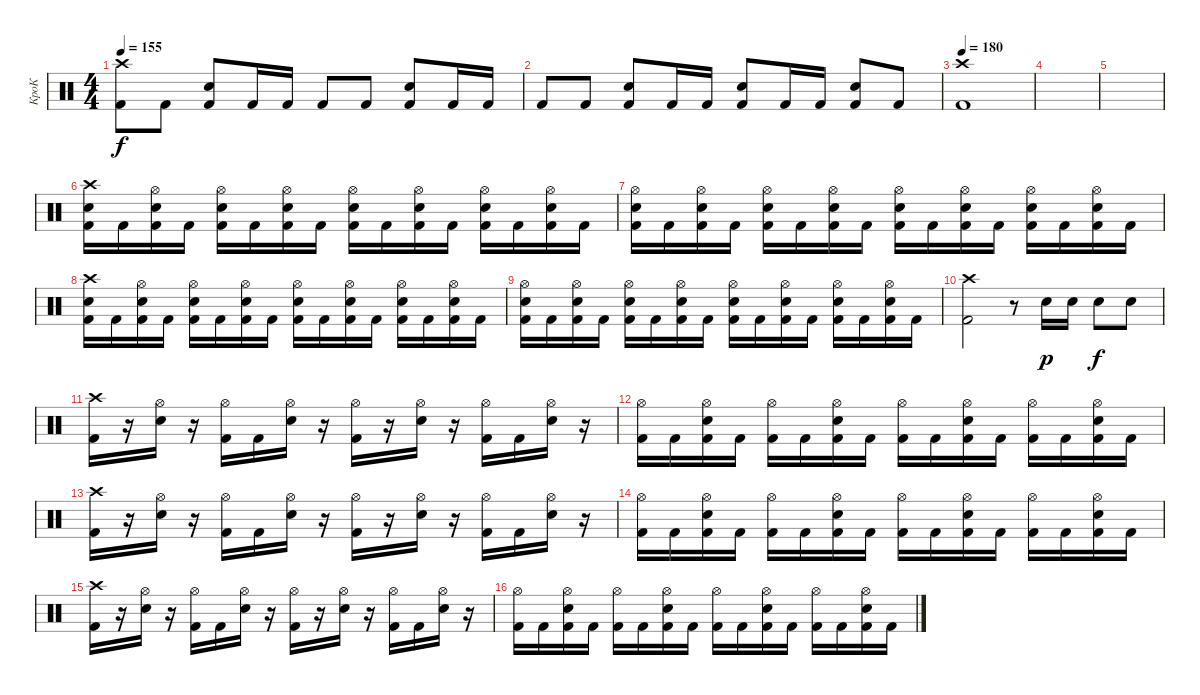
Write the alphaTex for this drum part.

\track ("КроК" "КроК") {instrument percussion}
\staff {score}
\articulation defaults
\ts (4 4)
\tempo 155
\clef neutral
\ks c
("Kick (hit) 2" "Crash high (hit)").8{dy f} "Kick (hit) 2".8 ("Kick (hit) 2" "Electric Snare (hit)").8 "Kick (hit) 2".16 "Kick (hit) 2".16 "Kick (hit) 2".8 "Kick (hit) 2".8 ("Kick (hit) 2" "Electric Snare (hit)").8 "Kick (hit) 2".16 "Kick (hit) 2".16 |
"Kick (hit) 2".8 "Kick (hit) 2".8 ("Kick (hit) 2" "Electric Snare (hit)").8 "Kick (hit) 2".16 "Kick (hit) 2".16 ("Kick (hit) 2" "Electric Snare (hit)").8 "Kick (hit) 2".16 "Kick (hit) 2".16 ("Kick (hit) 2" "Electric Snare (hit)").8 "Kick (hit) 2".8 |
\tempo 180
("Kick (hit) 2" "Crash high (hit)").1 |
|
|
("Crash high (hit)" "Electric Snare (hit)" "Kick (hit) 2").16 "Kick (hit) 2".16 ("Hi-Hat (open)" "Electric Snare (hit)" "Kick (hit) 2").16 "Kick (hit) 2".16 ("Hi-Hat (open)" "Electric Snare (hit)" "Kick (hit) 2").16 "Kick (hit) 2".16 ("Hi-Hat (open)" "Electric Snare (hit)" "Kick (hit) 2").16 "Kick (hit) 2".16 ("Hi-Hat (open)" "Electric Snare (hit)" "Kick (hit) 2").16 "Kick (hit) 2".16 ("Hi-Hat (open)" "Electric Snare (hit)" "Kick (hit) 2").16 "Kick (hit) 2".16 ("Hi-Hat (open)" "Electric Snare (hit)" "Kick (hit) 2").16 "Kick (hit) 2".16 ("Hi-Hat (open)" "Electric Snare (hit)" "Kick (hit) 2").16 "Kick (hit) 2".16 |
("Hi-Hat (open)" "Electric Snare (hit)" "Kick (hit) 2").16 "Kick (hit) 2".16 ("Hi-Hat (open)" "Electric Snare (hit)" "Kick (hit) 2").16 "Kick (hit) 2".16 ("Hi-Hat (open)" "Electric Snare (hit)" "Kick (hit) 2").16 "Kick (hit) 2".16 ("Hi-Hat (open)" "Electric Snare (hit)" "Kick (hit) 2").16 "Kick (hit) 2".16 ("Hi-Hat (open)" "Electric Snare (hit)" "Kick (hit) 2").16 "Kick (hit) 2".16 ("Hi-Hat (open)" "Electric Snare (hit)" "Kick (hit) 2").16 "Kick (hit) 2".16 ("Hi-Hat (open)" "Electric Snare (hit)" "Kick (hit) 2").16 "Kick (hit) 2".16 ("Hi-Hat (open)" "Electric Snare (hit)" "Kick (hit) 2").16 "Kick (hit) 2".16 |
("Crash high (hit)" "Electric Snare (hit)" "Kick (hit) 2").16 "Kick (hit) 2".16 ("Hi-Hat (open)" "Electric Snare (hit)" "Kick (hit) 2").16 "Kick (hit) 2".16 ("Hi-Hat (open)" "Electric Snare (hit)" "Kick (hit) 2").16 "Kick (hit) 2".16 ("Hi-Hat (open)" "Electric Snare (hit)" "Kick (hit) 2").16 "Kick (hit) 2".16 ("Hi-Hat (open)" "Electric Snare (hit)" "Kick (hit) 2").16 "Kick (hit) 2".16 ("Hi-Hat (open)" "Electric Snare (hit)" "Kick (hit) 2").16 "Kick (hit) 2".16 ("Hi-Hat (open)" "Electric Snare (hit)" "Kick (hit) 2").16 "Kick (hit) 2".16 ("Hi-Hat (open)" "Electric Snare (hit)" "Kick (hit) 2").16 "Kick (hit) 2".16 |
("Hi-Hat (open)" "Electric Snare (hit)" "Kick (hit) 2").16 "Kick (hit) 2".16 ("Hi-Hat (open)" "Electric Snare (hit)" "Kick (hit) 2").16 "Kick (hit) 2".16 ("Hi-Hat (open)" "Electric Snare (hit)" "Kick (hit) 2").16 "Kick (hit) 2".16 ("Hi-Hat (open)" "Electric Snare (hit)" "Kick (hit) 2").16 "Kick (hit) 2".16 ("Hi-Hat (open)" "Electric Snare (hit)" "Kick (hit) 2").16 "Kick (hit) 2".16 ("Hi-Hat (open)" "Electric Snare (hit)" "Kick (hit) 2").16 "Kick (hit) 2".16 ("Hi-Hat (open)" "Electric Snare (hit)" "Kick (hit) 2").16 "Kick (hit) 2".16 ("Hi-Hat (open)" "Electric Snare (hit)" "Kick (hit) 2").16 "Kick (hit) 2".16 |
("Crash high (hit)" "Kick (hit) 2").2 r.8 "Electric Snare (hit)".16{dy p} "Electric Snare (hit)".16 "Electric Snare (hit)".8{dy f} "Electric Snare (hit)".8 |
("Crash high (hit)" "Kick (hit) 2").16 r.16 ("Hi-Hat (open)" "Electric Snare (hit)").16 r.16 ("Hi-Hat (open)" "Kick (hit) 2").16 "Kick (hit) 2".16 ("Hi-Hat (open)" "Electric Snare (hit)").16 r.16 ("Hi-Hat (open)" "Kick (hit) 2").16 r.16 ("Hi-Hat (open)" "Electric Snare (hit)").16 r.16 ("Hi-Hat (open)" "Kick (hit) 2").16 "Kick (hit) 2".16 ("Hi-Hat (open)" "Electric Snare (hit)").16 r.16 |
("Hi-Hat (open)" "Kick (hit) 2").16 "Kick (hit) 2".16 ("Hi-Hat (open)" "Electric Snare (hit)" "Kick (hit) 2").16 "Kick (hit) 2".16 ("Hi-Hat (open)" "Kick (hit) 2").16 "Kick (hit) 2".16 ("Hi-Hat (open)" "Electric Snare (hit)" "Kick (hit) 2").16 "Kick (hit) 2".16 ("Hi-Hat (open)" "Kick (hit) 2").16 "Kick (hit) 2".16 ("Hi-Hat (open)" "Electric Snare (hit)" "Kick (hit) 2").16 "Kick (hit) 2".16 ("Hi-Hat (open)" "Kick (hit) 2").16 "Kick (hit) 2".16 ("Hi-Hat (open)" "Electric Snare (hit)" "Kick (hit) 2").16 "Kick (hit) 2".16 |
("Crash high (hit)" "Kick (hit) 2").16 r.16 ("Hi-Hat (open)" "Electric Snare (hit)").16 r.16 ("Hi-Hat (open)" "Kick (hit) 2").16 "Kick (hit) 2".16 ("Hi-Hat (open)" "Electric Snare (hit)").16 r.16 ("Hi-Hat (open)" "Kick (hit) 2").16 r.16 ("Hi-Hat (open)" "Electric Snare (hit)").16 r.16 ("Hi-Hat (open)" "Kick (hit) 2").16 "Kick (hit) 2".16 ("Hi-Hat (open)" "Electric Snare (hit)").16 r.16 |
("Hi-Hat (open)" "Kick (hit) 2").16 "Kick (hit) 2".16 ("Hi-Hat (open)" "Electric Snare (hit)" "Kick (hit) 2").16 "Kick (hit) 2".16 ("Hi-Hat (open)" "Kick (hit) 2").16 "Kick (hit) 2".16 ("Hi-Hat (open)" "Electric Snare (hit)" "Kick (hit) 2").16 "Kick (hit) 2".16 ("Hi-Hat (open)" "Kick (hit) 2").16 "Kick (hit) 2".16 ("Hi-Hat (open)" "Electric Snare (hit)" "Kick (hit) 2").16 "Kick (hit) 2".16 ("Hi-Hat (open)" "Kick (hit) 2").16 "Kick (hit) 2".16 ("Hi-Hat (open)" "Electric Snare (hit)" "Kick (hit) 2").16 "Kick (hit) 2".16 |
("Crash high (hit)" "Kick (hit) 2").16 r.16 ("Hi-Hat (open)" "Electric Snare (hit)").16 r.16 ("Hi-Hat (open)" "Kick (hit) 2").16 "Kick (hit) 2".16 ("Hi-Hat (open)" "Electric Snare (hit)").16 r.16 ("Hi-Hat (open)" "Kick (hit) 2").16 r.16 ("Hi-Hat (open)" "Electric Snare (hit)").16 r.16 ("Hi-Hat (open)" "Kick (hit) 2").16 "Kick (hit) 2".16 ("Hi-Hat (open)" "Electric Snare (hit)").16 r.16 |
("Hi-Hat (open)" "Kick (hit) 2").16 "Kick (hit) 2".16 ("Hi-Hat (open)" "Electric Snare (hit)" "Kick (hit) 2").16 "Kick (hit) 2".16 ("Hi-Hat (open)" "Kick (hit) 2").16 "Kick (hit) 2".16 ("Hi-Hat (open)" "Electric Snare (hit)" "Kick (hit) 2").16 "Kick (hit) 2".16 ("Hi-Hat (open)" "Kick (hit) 2").16 "Kick (hit) 2".16 ("Hi-Hat (open)" "Electric Snare (hit)" "Kick (hit) 2").16 "Kick (hit) 2".16 ("Hi-Hat (open)" "Kick (hit) 2").16 "Kick (hit) 2".16 ("Hi-Hat (open)" "Electric Snare (hit)" "Kick (hit) 2").16 "Kick (hit) 2".16
